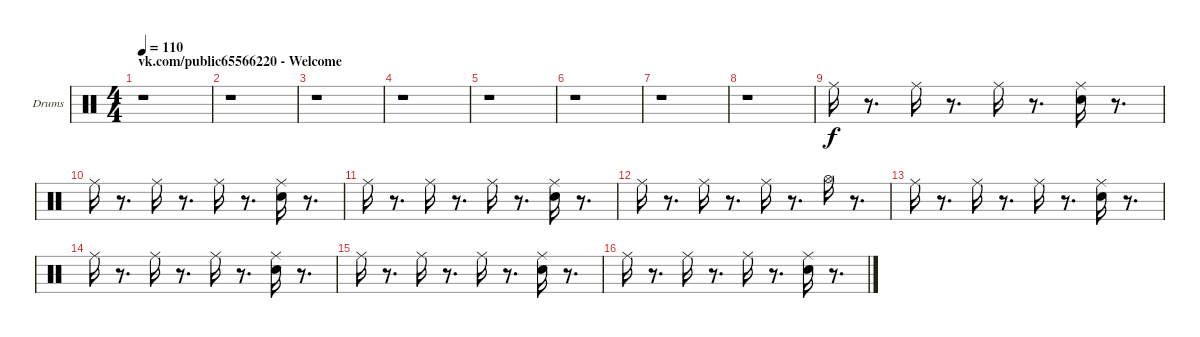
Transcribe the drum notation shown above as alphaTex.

\bracketExtendMode groupsimilarinstruments
\firstSystemTrackNameOrientation horizontal
\otherSystemsTrackNameOrientation horizontal
\track ("Drumkit" "Drums") {instrument percussion}
\staff {score}
\articulation defaults
\ts (4 4)
\section ("" "vk.com/public65566220 - Welcome")
\tempo 110
\clef neutral
\ks c
r.1{dy f} |
r.1 |
r.1 |
r.1 |
r.1 |
r.1 |
r.1 |
r.1 |
"Ride (middle)".16 r.8{d} "Ride (middle)".16 r.8{d} "Ride (middle)".16 r.8{d} ("Snare (hit) 2" "Ride (middle)").16 r.8{d} |
"Ride (middle)".16 r.8{d} "Ride (middle)".16 r.8{d} "Ride (middle)".16 r.8{d} ("Snare (hit) 2" "Ride (middle)").16 r.8{d} |
"Ride (middle)".16 r.8{d} "Ride (middle)".16 r.8{d} "Ride (middle)".16 r.8{d} ("Snare (hit) 2" "Ride (middle)").16 r.8{d} |
"Ride (middle)".16 r.8{d} "Ride (middle)".16 r.8{d} "Ride (middle)".16 r.8{d} "Hi-Hat (open)".16 r.8{d} |
"Ride (middle)".16 r.8{d} "Ride (middle)".16 r.8{d} "Ride (middle)".16 r.8{d} ("Snare (hit) 2" "Ride (middle)").16 r.8{d} |
"Ride (middle)".16 r.8{d} "Ride (middle)".16 r.8{d} "Ride (middle)".16 r.8{d} ("Snare (hit) 2" "Ride (middle)").16 r.8{d} |
"Ride (middle)".16 r.8{d} "Ride (middle)".16 r.8{d} "Ride (middle)".16 r.8{d} ("Snare (hit) 2" "Ride (middle)").16 r.8{d} |
"Ride (middle)".16 r.8{d} "Ride (middle)".16 r.8{d} "Ride (middle)".16 r.8{d} ("Snare (hit) 2" "Ride (middle)").16 r.8{d}
